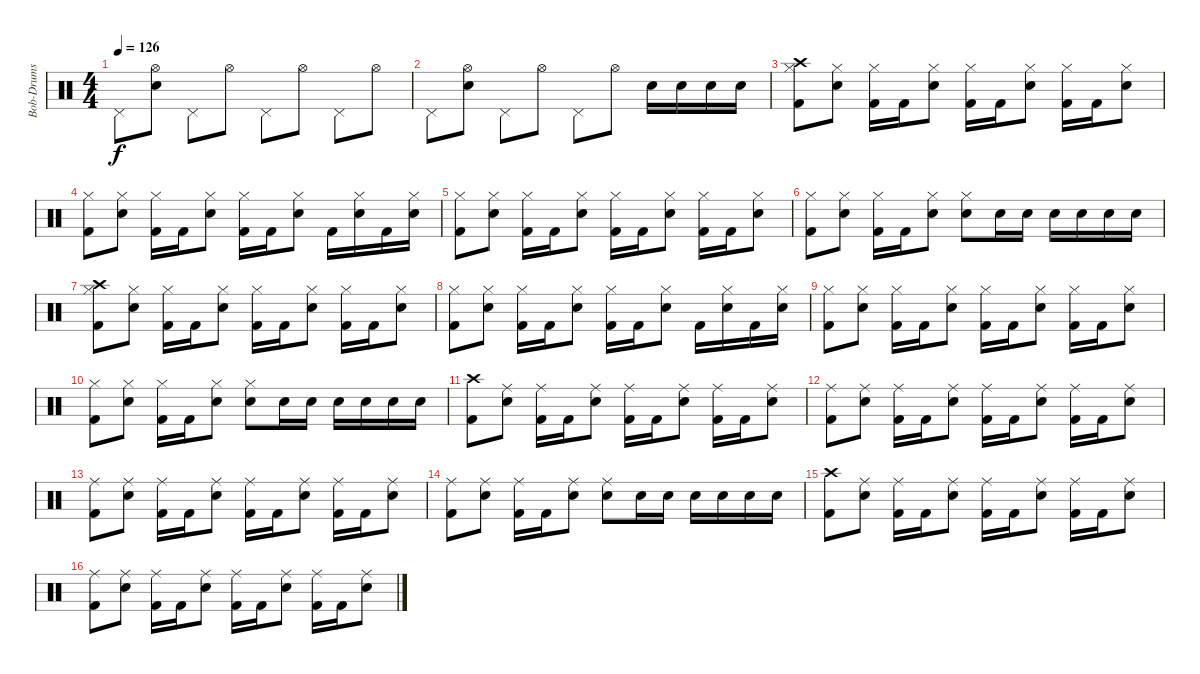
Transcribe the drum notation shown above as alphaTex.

\track ("Bob-Drums" "Bob-Drums") {instrument percussion}
\staff {score}
\articulation defaults
\ts (4 4)
\tempo 126
\clef neutral
\ks c "Pedal Hi-Hat (hit)".8{dy f}
("Hi-Hat (open)" "Snare (hit) 2").8 "Pedal Hi-Hat (hit)".8 "Hi-Hat (open)".8 "Pedal Hi-Hat (hit)".8 "Hi-Hat (open)".8 "Pedal Hi-Hat (hit)".8 "Hi-Hat (open)".8 |
"Pedal Hi-Hat (hit)".8 ("Hi-Hat (open)" "Snare (hit) 2").8 "Pedal Hi-Hat (hit)".8 "Hi-Hat (open)".8 "Pedal Hi-Hat (hit)".8 "Hi-Hat (open)".8 "Snare (hit) 2".16 "Snare (hit) 2".16 "Snare (hit) 2".16 "Snare (hit) 2".16 |
("Crash high (hit)" "Hi-Hat (closed)" "Kick (hit) 2").8 ("Hi-Hat (closed)" "Snare (hit) 2").8 ("Hi-Hat (closed)" "Kick (hit) 2").16 "Kick (hit) 2".16 ("Hi-Hat (closed)" "Snare (hit) 2").8 ("Hi-Hat (closed)" "Kick (hit) 2").16 "Kick (hit) 2".16 ("Hi-Hat (closed)" "Snare (hit) 2").8 ("Hi-Hat (closed)" "Kick (hit) 2").16 "Kick (hit) 2".16 ("Hi-Hat (closed)" "Snare (hit) 2").8 |
("Hi-Hat (closed)" "Kick (hit) 2").8 ("Hi-Hat (closed)" "Snare (hit) 2").8 ("Hi-Hat (closed)" "Kick (hit) 2").16 "Kick (hit) 2".16 ("Hi-Hat (closed)" "Snare (hit) 2").8 ("Hi-Hat (closed)" "Kick (hit) 2").16 "Kick (hit) 2".16 ("Hi-Hat (closed)" "Snare (hit) 2").8 "Kick (hit) 2".16 ("Hi-Hat (closed)" "Snare (hit) 2").16 "Kick (hit) 2".16 ("Hi-Hat (closed)" "Snare (hit) 2").16 |
("Hi-Hat (closed)" "Kick (hit) 2").8 ("Hi-Hat (closed)" "Snare (hit) 2").8 ("Hi-Hat (closed)" "Kick (hit) 2").16 "Kick (hit) 2".16 ("Hi-Hat (closed)" "Snare (hit) 2").8 ("Hi-Hat (closed)" "Kick (hit) 2").16 "Kick (hit) 2".16 ("Hi-Hat (closed)" "Snare (hit) 2").8 ("Hi-Hat (closed)" "Kick (hit) 2").16 "Kick (hit) 2".16 ("Hi-Hat (closed)" "Snare (hit) 2").8 |
("Hi-Hat (closed)" "Kick (hit) 2").8 ("Hi-Hat (closed)" "Snare (hit) 2").8 ("Hi-Hat (closed)" "Kick (hit) 2").16 "Kick (hit) 2".16 ("Hi-Hat (closed)" "Snare (hit) 2").8 ("Hi-Hat (closed)" "Snare (hit) 2").8 "Snare (hit) 2".16 "Snare (hit) 2".16 "Snare (hit) 2".16 "Snare (hit) 2".16 "Snare (hit) 2".16 "Snare (hit) 2".16 |
("Crash high (hit)" "Hi-Hat (closed)" "Kick (hit) 2").8 ("Hi-Hat (closed)" "Snare (hit) 2").8 ("Hi-Hat (closed)" "Kick (hit) 2").16 "Kick (hit) 2".16 ("Hi-Hat (closed)" "Snare (hit) 2").8 ("Hi-Hat (closed)" "Kick (hit) 2").16 "Kick (hit) 2".16 ("Hi-Hat (closed)" "Snare (hit) 2").8 ("Hi-Hat (closed)" "Kick (hit) 2").16 "Kick (hit) 2".16 ("Hi-Hat (closed)" "Snare (hit) 2").8 |
("Hi-Hat (closed)" "Kick (hit) 2").8 ("Hi-Hat (closed)" "Snare (hit) 2").8 ("Hi-Hat (closed)" "Kick (hit) 2").16 "Kick (hit) 2".16 ("Hi-Hat (closed)" "Snare (hit) 2").8 ("Hi-Hat (closed)" "Kick (hit) 2").16 "Kick (hit) 2".16 ("Hi-Hat (closed)" "Snare (hit) 2").8 "Kick (hit) 2".16 ("Hi-Hat (closed)" "Snare (hit) 2").16 "Kick (hit) 2".16 ("Hi-Hat (closed)" "Snare (hit) 2").16 |
("Hi-Hat (closed)" "Kick (hit) 2").8 ("Hi-Hat (closed)" "Snare (hit) 2").8 ("Hi-Hat (closed)" "Kick (hit) 2").16 "Kick (hit) 2".16 ("Hi-Hat (closed)" "Snare (hit) 2").8 ("Hi-Hat (closed)" "Kick (hit) 2").16 "Kick (hit) 2".16 ("Hi-Hat (closed)" "Snare (hit) 2").8 ("Hi-Hat (closed)" "Kick (hit) 2").16 "Kick (hit) 2".16 ("Hi-Hat (closed)" "Snare (hit) 2").8 |
("Hi-Hat (closed)" "Kick (hit) 2").8 ("Hi-Hat (closed)" "Snare (hit) 2").8 ("Hi-Hat (closed)" "Kick (hit) 2").16 "Kick (hit) 2".16 ("Hi-Hat (closed)" "Snare (hit) 2").8 ("Hi-Hat (closed)" "Snare (hit) 2").8 "Snare (hit) 2".16 "Snare (hit) 2".16 "Snare (hit) 2".16 "Snare (hit) 2".16 "Snare (hit) 2".16 "Snare (hit) 2".16 |
("Crash high (hit)" "Kick (hit) 2").8 ("Ride (middle)" "Snare (hit) 2").8 ("Ride (middle)" "Kick (hit) 2").16 "Kick (hit) 2".16 ("Ride (middle)" "Snare (hit) 2").8 ("Ride (middle)" "Kick (hit) 2").16 "Kick (hit) 2".16 ("Ride (middle)" "Snare (hit) 2").8 ("Ride (middle)" "Kick (hit) 2").16 "Kick (hit) 2".16 ("Ride (middle)" "Snare (hit) 2").8 |
("Ride (middle)" "Kick (hit) 2").8 ("Ride (middle)" "Snare (hit) 2").8 ("Ride (middle)" "Kick (hit) 2").16 "Kick (hit) 2".16 ("Ride (middle)" "Snare (hit) 2").8 ("Ride (middle)" "Kick (hit) 2").16 "Kick (hit) 2".16 ("Ride (middle)" "Snare (hit) 2").8 ("Ride (middle)" "Kick (hit) 2").16 "Kick (hit) 2".16 ("Ride (middle)" "Snare (hit) 2").8 |
("Ride (middle)" "Kick (hit) 2").8 ("Ride (middle)" "Snare (hit) 2").8 ("Ride (middle)" "Kick (hit) 2").16 "Kick (hit) 2".16 ("Ride (middle)" "Snare (hit) 2").8 ("Ride (middle)" "Kick (hit) 2").16 "Kick (hit) 2".16 ("Ride (middle)" "Snare (hit) 2").8 ("Ride (middle)" "Kick (hit) 2").16 "Kick (hit) 2".16 ("Ride (middle)" "Snare (hit) 2").8 |
("Ride (middle)" "Kick (hit) 2").8 ("Ride (middle)" "Snare (hit) 2").8 ("Ride (middle)" "Kick (hit) 2").16 "Kick (hit) 2".16 ("Ride (middle)" "Snare (hit) 2").8 ("Ride (middle)" "Snare (hit) 2").8 "Snare (hit) 2".16 "Snare (hit) 2".16 "Snare (hit) 2".16 "Snare (hit) 2".16 "Snare (hit) 2".16 "Snare (hit) 2".16 |
("Crash high (hit)" "Kick (hit) 2").8 ("Ride (middle)" "Snare (hit) 2").8 ("Ride (middle)" "Kick (hit) 2").16 "Kick (hit) 2".16 ("Ride (middle)" "Snare (hit) 2").8 ("Ride (middle)" "Kick (hit) 2").16 "Kick (hit) 2".16 ("Ride (middle)" "Snare (hit) 2").8 ("Ride (middle)" "Kick (hit) 2").16 "Kick (hit) 2".16 ("Ride (middle)" "Snare (hit) 2").8 |
("Ride (middle)" "Kick (hit) 2").8 ("Ride (middle)" "Snare (hit) 2").8 ("Ride (middle)" "Kick (hit) 2").16 "Kick (hit) 2".16 ("Ride (middle)" "Snare (hit) 2").8 ("Ride (middle)" "Kick (hit) 2").16 "Kick (hit) 2".16 ("Ride (middle)" "Snare (hit) 2").8 ("Ride (middle)" "Kick (hit) 2").16 "Kick (hit) 2".16 ("Ride (middle)" "Snare (hit) 2").8
